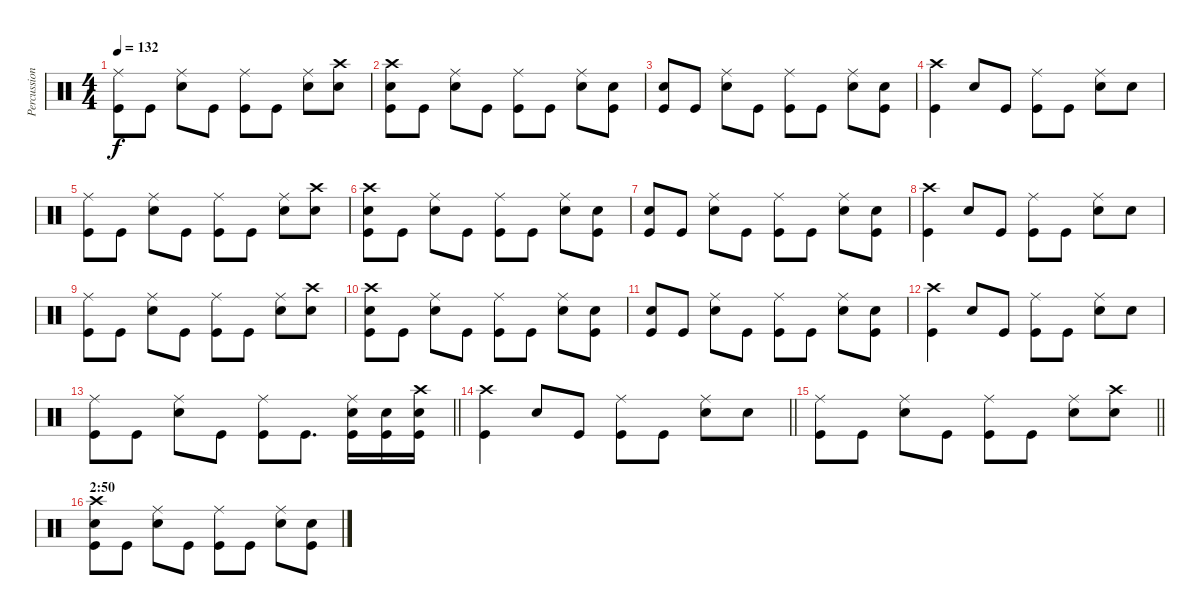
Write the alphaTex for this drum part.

\track ("Percussion" "Percussion") {instrument percussion}
\staff {score}
\articulation defaults
\ts (4 4)
\tempo 132
\clef neutral
\ks c
("Ride (middle)" "Kick (hit)").8{dy f} "Kick (hit)".8 ("Ride (middle)" "Electric Snare (hit)").8 "Kick (hit)".8 ("Ride (middle)" "Kick (hit)").8 "Kick (hit)".8 ("Ride (middle)" "Electric Snare (hit)").8 ("Crash high (hit)" "Electric Snare (hit)").8 |
("Crash high (hit)" "Electric Snare (hit)" "Kick (hit)").8 "Kick (hit)".8 ("Ride (middle)" "Electric Snare (hit)").8 "Kick (hit)".8 ("Ride (middle)" "Kick (hit)").8 "Kick (hit)".8 ("Ride (middle)" "Electric Snare (hit)").8 ("Electric Snare (hit)" "Kick (hit)").8 |
("Electric Snare (hit)" "Kick (hit)").8 "Kick (hit)".8 ("Ride (middle)" "Electric Snare (hit)").8 "Kick (hit)".8 ("Ride (middle)" "Kick (hit)").8 "Kick (hit)".8 ("Ride (middle)" "Electric Snare (hit)").8 ("Electric Snare (hit)" "Kick (hit)").8 |
("Crash high (hit)" "Kick (hit)").4 "Electric Snare (hit)".8 "Kick (hit)".8 ("Ride (middle)" "Kick (hit)").8 "Kick (hit)".8 ("Ride (middle)" "Electric Snare (hit)").8 "Electric Snare (hit)".8 |
("Ride (middle)" "Kick (hit)").8 "Kick (hit)".8 ("Ride (middle)" "Electric Snare (hit)").8 "Kick (hit)".8 ("Ride (middle)" "Kick (hit)").8 "Kick (hit)".8 ("Ride (middle)" "Electric Snare (hit)").8 ("Crash high (hit)" "Electric Snare (hit)").8 |
("Crash high (hit)" "Electric Snare (hit)" "Kick (hit)").8 "Kick (hit)".8 ("Ride (middle)" "Electric Snare (hit)").8 "Kick (hit)".8 ("Ride (middle)" "Kick (hit)").8 "Kick (hit)".8 ("Ride (middle)" "Electric Snare (hit)").8 ("Electric Snare (hit)" "Kick (hit)").8 |
("Electric Snare (hit)" "Kick (hit)").8 "Kick (hit)".8 ("Ride (middle)" "Electric Snare (hit)").8 "Kick (hit)".8 ("Ride (middle)" "Kick (hit)").8 "Kick (hit)".8 ("Ride (middle)" "Electric Snare (hit)").8 ("Electric Snare (hit)" "Kick (hit)").8 |
("Crash high (hit)" "Kick (hit)").4 "Electric Snare (hit)".8 "Kick (hit)".8 ("Ride (middle)" "Kick (hit)").8 "Kick (hit)".8 ("Ride (middle)" "Electric Snare (hit)").8 "Electric Snare (hit)".8 |
("Ride (middle)" "Kick (hit)").8 "Kick (hit)".8 ("Ride (middle)" "Electric Snare (hit)").8 "Kick (hit)".8 ("Ride (middle)" "Kick (hit)").8 "Kick (hit)".8 ("Ride (middle)" "Electric Snare (hit)").8 ("Crash high (hit)" "Electric Snare (hit)").8 |
("Crash high (hit)" "Electric Snare (hit)" "Kick (hit)").8 "Kick (hit)".8 ("Ride (middle)" "Electric Snare (hit)").8 "Kick (hit)".8 ("Ride (middle)" "Kick (hit)").8 "Kick (hit)".8 ("Ride (middle)" "Electric Snare (hit)").8 ("Electric Snare (hit)" "Kick (hit)").8 |
("Electric Snare (hit)" "Kick (hit)").8 "Kick (hit)".8 ("Ride (middle)" "Electric Snare (hit)").8 "Kick (hit)".8 ("Ride (middle)" "Kick (hit)").8 "Kick (hit)".8 ("Ride (middle)" "Electric Snare (hit)").8 ("Electric Snare (hit)" "Kick (hit)").8 |
("Crash high (hit)" "Kick (hit)").4 "Electric Snare (hit)".8 "Kick (hit)".8 ("Ride (middle)" "Kick (hit)").8 "Kick (hit)".8 ("Ride (middle)" "Electric Snare (hit)").8 "Electric Snare (hit)".8 |
\barLineRight lightlight
("Ride (middle)" "Kick (hit)").8 "Kick (hit)".8 ("Ride (middle)" "Electric Snare (hit)").8 "Kick (hit)".8 ("Ride (middle)" "Kick (hit)").8 "Kick (hit)".8{d} ("Ride (middle)" "Electric Snare (hit)" "Kick (hit)").16 ("Electric Snare (hit)" "Kick (hit)").16 ("Crash high (hit)" "Electric Snare (hit)" "Kick (hit)").16 |
\barLineRight lightlight
("Crash high (hit)" "Kick (hit)").4 "Electric Snare (hit)".8 "Kick (hit)".8 ("Ride (middle)" "Kick (hit)").8 "Kick (hit)".8 ("Ride (middle)" "Electric Snare (hit)").8 "Electric Snare (hit)".8 |
\section ("" "")
\barLineRight lightlight
("Ride (middle)" "Kick (hit)").8 "Kick (hit)".8 ("Ride (middle)" "Electric Snare (hit)").8 "Kick (hit)".8 ("Ride (middle)" "Kick (hit)").8 "Kick (hit)".8 ("Ride (middle)" "Electric Snare (hit)").8 ("Crash high (hit)" "Electric Snare (hit)").8 |
\section ("" "2:50")
("Crash high (hit)" "Electric Snare (hit)" "Kick (hit)").8 "Kick (hit)".8 ("Ride (middle)" "Electric Snare (hit)").8 "Kick (hit)".8 ("Ride (middle)" "Kick (hit)").8 "Kick (hit)".8 ("Ride (middle)" "Electric Snare (hit)").8 ("Electric Snare (hit)" "Kick (hit)").8
